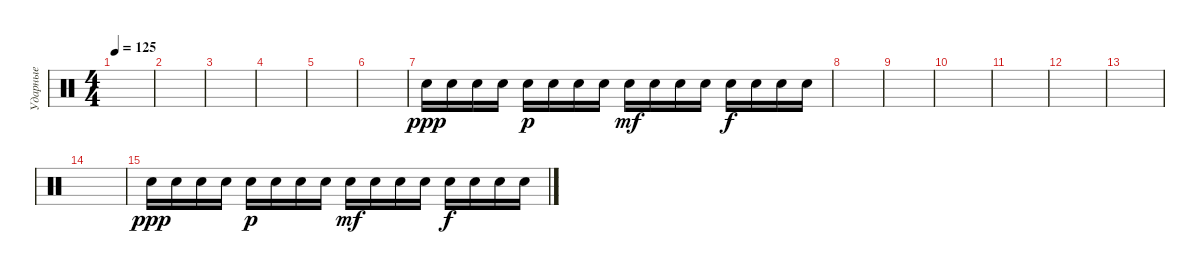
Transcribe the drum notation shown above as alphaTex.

\track ("Ударные" "Ударные") {instrument percussion}
\staff {score}
\articulation defaults
\ts (4 4)
\tempo 125
\clef neutral
\ks c
|
|
|
|
|
|
"Snare (hit) 2".16{dy ppp} "Snare (hit) 2".16 "Snare (hit) 2".16 "Snare (hit) 2".16 "Snare (hit) 2".16{dy p} "Snare (hit) 2".16 "Snare (hit) 2".16 "Snare (hit) 2".16 "Snare (hit) 2".16{dy mf} "Snare (hit) 2".16 "Snare (hit) 2".16 "Snare (hit) 2".16 "Snare (hit) 2".16{dy f} "Snare (hit) 2".16 "Snare (hit) 2".16 "Snare (hit) 2".16 |
|
|
|
|
|
|
|
"Snare (hit) 2".16{dy ppp} "Snare (hit) 2".16 "Snare (hit) 2".16 "Snare (hit) 2".16 "Snare (hit) 2".16{dy p} "Snare (hit) 2".16 "Snare (hit) 2".16 "Snare (hit) 2".16 "Snare (hit) 2".16{dy mf} "Snare (hit) 2".16 "Snare (hit) 2".16 "Snare (hit) 2".16 "Snare (hit) 2".16{dy f} "Snare (hit) 2".16 "Snare (hit) 2".16 "Snare (hit) 2".16
